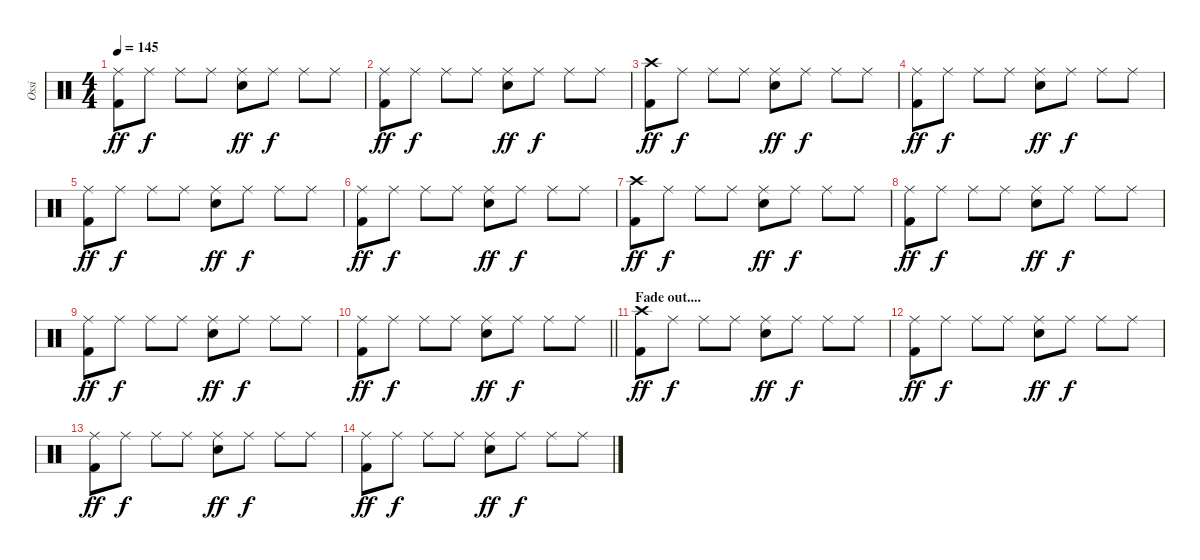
\track ("Ossi" "Ossi") {instrument percussion}
\staff {score}
\articulation defaults
\ts (4 4)
\tempo 145
\clef neutral
\ks c
("Ride (middle)" "Kick (hit) 2").8{dy ff} "Ride (middle)".8{dy f} "Ride (middle)".8 "Ride (middle)".8 ("Ride (middle)" "Electric Snare (hit)").8{dy ff} "Ride (middle)".8{dy f} "Ride (middle)".8 "Ride (middle)".8 |
("Ride (middle)" "Kick (hit) 2").8{dy ff} "Ride (middle)".8{dy f} "Ride (middle)".8 "Ride (middle)".8 ("Ride (middle)" "Electric Snare (hit)").8{dy ff} "Ride (middle)".8{dy f} "Ride (middle)".8 "Ride (middle)".8 |
("Crash high (hit)" "Kick (hit) 2").8{dy ff} "Ride (middle)".8{dy f} "Ride (middle)".8 "Ride (middle)".8 ("Ride (middle)" "Electric Snare (hit)").8{dy ff} "Ride (middle)".8{dy f} "Ride (middle)".8 "Ride (middle)".8 |
("Ride (middle)" "Kick (hit) 2").8{dy ff} "Ride (middle)".8{dy f} "Ride (middle)".8 "Ride (middle)".8 ("Ride (middle)" "Electric Snare (hit)").8{dy ff} "Ride (middle)".8{dy f} "Ride (middle)".8 "Ride (middle)".8 |
("Ride (middle)" "Kick (hit) 2").8{dy ff} "Ride (middle)".8{dy f} "Ride (middle)".8 "Ride (middle)".8 ("Ride (middle)" "Electric Snare (hit)").8{dy ff} "Ride (middle)".8{dy f} "Ride (middle)".8 "Ride (middle)".8 |
("Ride (middle)" "Kick (hit) 2").8{dy ff} "Ride (middle)".8{dy f} "Ride (middle)".8 "Ride (middle)".8 ("Ride (middle)" "Electric Snare (hit)").8{dy ff} "Ride (middle)".8{dy f} "Ride (middle)".8 "Ride (middle)".8 |
("Crash high (hit)" "Kick (hit) 2").8{dy ff} "Ride (middle)".8{dy f} "Ride (middle)".8 "Ride (middle)".8 ("Ride (middle)" "Electric Snare (hit)").8{dy ff} "Ride (middle)".8{dy f} "Ride (middle)".8 "Ride (middle)".8 |
("Ride (middle)" "Kick (hit) 2").8{dy ff} "Ride (middle)".8{dy f} "Ride (middle)".8 "Ride (middle)".8 ("Ride (middle)" "Electric Snare (hit)").8{dy ff} "Ride (middle)".8{dy f} "Ride (middle)".8 "Ride (middle)".8 |
("Ride (middle)" "Kick (hit) 2").8{dy ff} "Ride (middle)".8{dy f} "Ride (middle)".8 "Ride (middle)".8 ("Ride (middle)" "Electric Snare (hit)").8{dy ff} "Ride (middle)".8{dy f} "Ride (middle)".8 "Ride (middle)".8 |
\barLineRight lightlight
("Ride (middle)" "Kick (hit) 2").8{dy ff} "Ride (middle)".8{dy f} "Ride (middle)".8 "Ride (middle)".8 ("Ride (middle)" "Electric Snare (hit)").8{dy ff} "Ride (middle)".8{dy f} "Ride (middle)".8 "Ride (middle)".8 |
\section ("" "Fade out....")
("Crash high (hit)" "Kick (hit) 2").8{dy ff} "Ride (middle)".8{dy f} "Ride (middle)".8 "Ride (middle)".8 ("Ride (middle)" "Electric Snare (hit)").8{dy ff} "Ride (middle)".8{dy f} "Ride (middle)".8 "Ride (middle)".8 |
("Ride (middle)" "Kick (hit) 2").8{dy ff} "Ride (middle)".8{dy f} "Ride (middle)".8 "Ride (middle)".8 ("Ride (middle)" "Electric Snare (hit)").8{dy ff} "Ride (middle)".8{dy f} "Ride (middle)".8 "Ride (middle)".8 |
("Ride (middle)" "Kick (hit) 2").8{dy ff} "Ride (middle)".8{dy f} "Ride (middle)".8 "Ride (middle)".8 ("Ride (middle)" "Electric Snare (hit)").8{dy ff} "Ride (middle)".8{dy f} "Ride (middle)".8 "Ride (middle)".8 |
("Ride (middle)" "Kick (hit) 2").8{dy ff} "Ride (middle)".8{dy f} "Ride (middle)".8 "Ride (middle)".8 ("Ride (middle)" "Electric Snare (hit)").8{dy ff} "Ride (middle)".8{dy f} "Ride (middle)".8 "Ride (middle)".8
